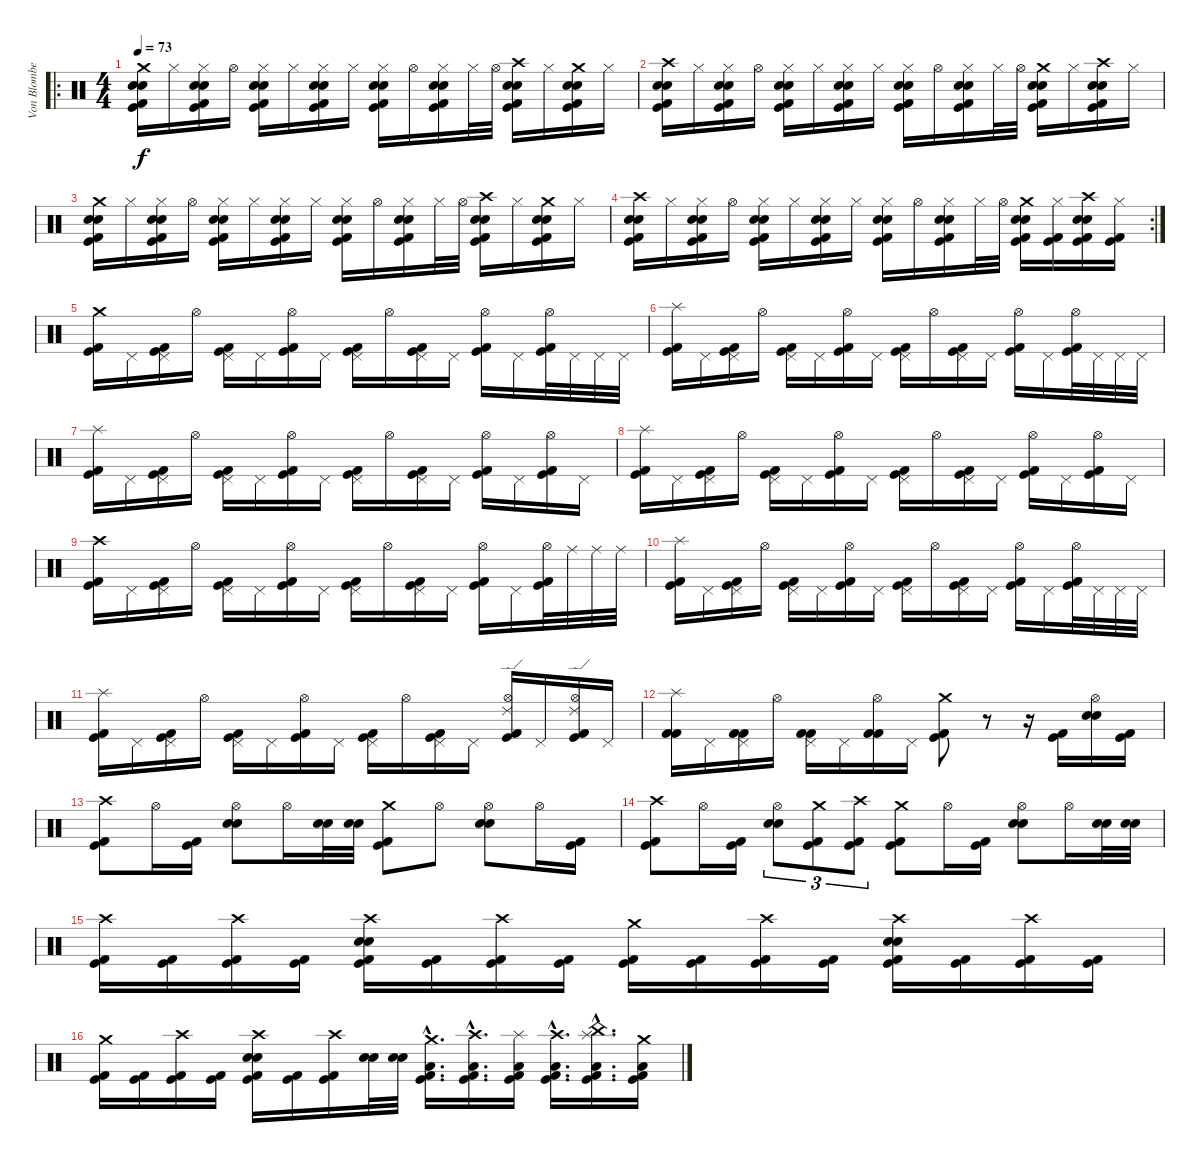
\track ("Von Blomberg" "Von Blombe") {instrument percussion}
\staff {score}
\articulation defaults
\ro
\ts (4 4)
\tempo 73
\clef neutral
\ks c
("Crash medium (hit)" "Snare (hit) 2" "Electric Snare (hit)" "Kick (hit)" "Kick (hit) 2").16{dy f} "Hi-Hat (closed)".16 ("Snare (hit) 2" "Hi-Hat (closed)" "Electric Snare (hit)" "Kick (hit) 2" "Kick (hit)").16 "Hi-Hat (open)".16 ("Snare (hit) 2" "Hi-Hat (closed)" "Electric Snare (hit)" "Kick (hit) 2" "Kick (hit)").16 "Hi-Hat (closed)".16 ("Snare (hit) 2" "Hi-Hat (closed)" "Electric Snare (hit)" "Kick (hit) 2" "Kick (hit)").16 "Hi-Hat (closed)".16 ("Snare (hit) 2" "Hi-Hat (closed)" "Electric Snare (hit)" "Kick (hit) 2" "Kick (hit)").16 "Hi-Hat (open)".16 ("Snare (hit) 2" "Hi-Hat (closed)" "Electric Snare (hit)" "Kick (hit) 2" "Kick (hit)").16 "Hi-Hat (closed)".32 "Hi-Hat (open)".32 ("Crash high (hit)" "Kick (hit)" "Electric Snare (hit)" "Snare (hit) 2" "Kick (hit) 2").16 "Hi-Hat (closed)".16 ("Crash medium (hit)" "Kick (hit)" "Electric Snare (hit)" "Snare (hit) 2" "Kick (hit) 2").16 "Hi-Hat (closed)".16 |
("Crash high (hit)" "Snare (hit) 2" "Electric Snare (hit)" "Kick (hit)" "Kick (hit) 2").16 "Hi-Hat (closed)".16 ("Snare (hit) 2" "Hi-Hat (closed)" "Electric Snare (hit)" "Kick (hit) 2" "Kick (hit)").16 "Hi-Hat (open)".16 ("Snare (hit) 2" "Hi-Hat (closed)" "Electric Snare (hit)" "Kick (hit) 2" "Kick (hit)").16 "Hi-Hat (closed)".16 ("Snare (hit) 2" "Hi-Hat (closed)" "Electric Snare (hit)" "Kick (hit) 2" "Kick (hit)").16 "Hi-Hat (closed)".16 ("Snare (hit) 2" "Hi-Hat (closed)" "Electric Snare (hit)" "Kick (hit) 2" "Kick (hit)").16 "Hi-Hat (open)".16 ("Snare (hit) 2" "Hi-Hat (closed)" "Electric Snare (hit)" "Kick (hit) 2" "Kick (hit)").16 "Hi-Hat (closed)".32 "Hi-Hat (open)".32 ("Crash medium (hit)" "Kick (hit)" "Electric Snare (hit)" "Snare (hit) 2" "Kick (hit) 2").16 "Hi-Hat (closed)".16 ("Crash high (hit)" "Kick (hit)" "Electric Snare (hit)" "Snare (hit) 2" "Kick (hit) 2").16 "Hi-Hat (closed)".16 |
("Crash medium (hit)" "Snare (hit) 2" "Electric Snare (hit)" "Kick (hit)" "Kick (hit) 2").16 "Hi-Hat (closed)".16 ("Snare (hit) 2" "Hi-Hat (closed)" "Electric Snare (hit)" "Kick (hit) 2" "Kick (hit)").16 "Hi-Hat (open)".16 ("Snare (hit) 2" "Hi-Hat (closed)" "Electric Snare (hit)" "Kick (hit) 2" "Kick (hit)").16 "Hi-Hat (closed)".16 ("Snare (hit) 2" "Hi-Hat (closed)" "Electric Snare (hit)" "Kick (hit) 2" "Kick (hit)").16 "Hi-Hat (closed)".16 ("Snare (hit) 2" "Hi-Hat (closed)" "Electric Snare (hit)" "Kick (hit) 2" "Kick (hit)").16 "Hi-Hat (open)".16 ("Snare (hit) 2" "Hi-Hat (closed)" "Electric Snare (hit)" "Kick (hit) 2" "Kick (hit)").16 "Hi-Hat (closed)".32 "Hi-Hat (open)".32 ("Crash high (hit)" "Kick (hit)" "Electric Snare (hit)" "Snare (hit) 2" "Kick (hit) 2").16 "Hi-Hat (closed)".16 ("Crash medium (hit)" "Kick (hit)" "Electric Snare (hit)" "Snare (hit) 2" "Kick (hit) 2").16 "Hi-Hat (closed)".16 |
\rc 2
("Crash high (hit)" "Snare (hit) 2" "Electric Snare (hit)" "Kick (hit)" "Kick (hit) 2").16 "Hi-Hat (closed)".16 ("Snare (hit) 2" "Hi-Hat (closed)" "Electric Snare (hit)" "Kick (hit) 2" "Kick (hit)").16 "Hi-Hat (open)".16 ("Snare (hit) 2" "Hi-Hat (closed)" "Electric Snare (hit)" "Kick (hit) 2" "Kick (hit)").16 "Hi-Hat (closed)".16 ("Snare (hit) 2" "Hi-Hat (closed)" "Electric Snare (hit)" "Kick (hit) 2" "Kick (hit)").16 "Hi-Hat (closed)".16 ("Snare (hit) 2" "Hi-Hat (closed)" "Electric Snare (hit)" "Kick (hit) 2" "Kick (hit)").16 "Hi-Hat (open)".16 ("Snare (hit) 2" "Hi-Hat (closed)" "Electric Snare (hit)" "Kick (hit) 2" "Kick (hit)").16 "Hi-Hat (closed)".32 "Hi-Hat (open)".32 ("Crash medium (hit)" "Kick (hit)" "Electric Snare (hit)" "Snare (hit) 2" "Kick (hit) 2").16 ("Hi-Hat (closed)" "Kick (hit)" "Kick (hit) 2").16 ("Crash high (hit)" "Kick (hit)" "Electric Snare (hit)" "Snare (hit) 2" "Kick (hit) 2").16 ("Hi-Hat (closed)" "Kick (hit)" "Kick (hit) 2").16 |
("Crash medium (hit)" "Kick (hit)" "Kick (hit) 2").16 "Pedal Hi-Hat (hit)".16 ("Pedal Hi-Hat (hit)" "Kick (hit)" "Kick (hit) 2").16 "Hi-Hat (open)".16 ("Pedal Hi-Hat (hit)" "Kick (hit)" "Kick (hit) 2").16 "Pedal Hi-Hat (hit)".16 ("Hi-Hat (open)" "Kick (hit)" "Kick (hit) 2").16 "Pedal Hi-Hat (hit)".16 ("Pedal Hi-Hat (hit)" "Kick (hit)" "Kick (hit) 2").16 "Hi-Hat (open)".16 ("Pedal Hi-Hat (hit)" "Kick (hit)" "Kick (hit) 2").16 "Pedal Hi-Hat (hit)".16 ("Hi-Hat (open)" "Kick (hit)" "Kick (hit) 2").16 "Pedal Hi-Hat (hit)".16 ("Hi-Hat (open)" "Kick (hit)" "Kick (hit) 2").32 "Pedal Hi-Hat (hit)".32 "Pedal Hi-Hat (hit)".32 "Pedal Hi-Hat (hit)".32 |
("Splash (hit)" "Kick (hit)" "Kick (hit) 2").16 "Pedal Hi-Hat (hit)".16 ("Pedal Hi-Hat (hit)" "Kick (hit)" "Kick (hit) 2").16 "Hi-Hat (open)".16 ("Pedal Hi-Hat (hit)" "Kick (hit)" "Kick (hit) 2").16 "Pedal Hi-Hat (hit)".16 ("Hi-Hat (open)" "Kick (hit)" "Kick (hit) 2").16 "Pedal Hi-Hat (hit)".16 ("Pedal Hi-Hat (hit)" "Kick (hit)" "Kick (hit) 2").16 "Hi-Hat (open)".16 ("Pedal Hi-Hat (hit)" "Kick (hit)" "Kick (hit) 2").16 "Pedal Hi-Hat (hit)".16 ("Hi-Hat (open)" "Kick (hit)" "Kick (hit) 2").16 "Pedal Hi-Hat (hit)".16 ("Hi-Hat (open)" "Kick (hit)" "Kick (hit) 2").32 "Pedal Hi-Hat (hit)".32 "Pedal Hi-Hat (hit)".32 "Pedal Hi-Hat (hit)".32 |
("Splash (hit)" "Kick (hit)" "Kick (hit) 2").16 "Pedal Hi-Hat (hit)".16 ("Pedal Hi-Hat (hit)" "Kick (hit)" "Kick (hit) 2").16 "Hi-Hat (open)".16 ("Pedal Hi-Hat (hit)" "Kick (hit)" "Kick (hit) 2").16 "Pedal Hi-Hat (hit)".16 ("Hi-Hat (open)" "Kick (hit)" "Kick (hit) 2").16 "Pedal Hi-Hat (hit)".16 ("Pedal Hi-Hat (hit)" "Kick (hit)" "Kick (hit) 2").16 "Hi-Hat (open)".16 ("Pedal Hi-Hat (hit)" "Kick (hit)" "Kick (hit) 2").16 "Pedal Hi-Hat (hit)".16 ("Hi-Hat (open)" "Kick (hit)" "Kick (hit) 2").16 "Pedal Hi-Hat (hit)".16 ("Hi-Hat (open)" "Kick (hit)" "Kick (hit) 2").16 "Pedal Hi-Hat (hit)".16 |
("Splash (hit)" "Kick (hit)" "Kick (hit) 2").16 "Pedal Hi-Hat (hit)".16 ("Pedal Hi-Hat (hit)" "Kick (hit)" "Kick (hit) 2").16 "Hi-Hat (open)".16 ("Pedal Hi-Hat (hit)" "Kick (hit)" "Kick (hit) 2").16 "Pedal Hi-Hat (hit)".16 ("Hi-Hat (open)" "Kick (hit)" "Kick (hit) 2").16 "Pedal Hi-Hat (hit)".16 ("Pedal Hi-Hat (hit)" "Kick (hit)" "Kick (hit) 2").16 "Hi-Hat (open)".16 ("Pedal Hi-Hat (hit)" "Kick (hit)" "Kick (hit) 2").16 "Pedal Hi-Hat (hit)".16 ("Hi-Hat (open)" "Kick (hit)" "Kick (hit) 2").16 "Pedal Hi-Hat (hit)".16 ("Hi-Hat (open)" "Kick (hit)" "Kick (hit) 2").16 "Pedal Hi-Hat (hit)".16 |
("Crash high (hit)" "Kick (hit)" "Kick (hit) 2").16 "Pedal Hi-Hat (hit)".16 ("Pedal Hi-Hat (hit)" "Kick (hit)" "Kick (hit) 2").16 "Hi-Hat (open)".16 ("Pedal Hi-Hat (hit)" "Kick (hit)" "Kick (hit) 2").16 "Pedal Hi-Hat (hit)".16 ("Hi-Hat (open)" "Kick (hit)" "Kick (hit) 2").16 "Pedal Hi-Hat (hit)".16 ("Pedal Hi-Hat (hit)" "Kick (hit)" "Kick (hit) 2").16 "Hi-Hat (open)".16 ("Pedal Hi-Hat (hit)" "Kick (hit)" "Kick (hit) 2").16 "Pedal Hi-Hat (hit)".16 ("Hi-Hat (open)" "Kick (hit)" "Kick (hit) 2").16 "Pedal Hi-Hat (hit)".16 ("Hi-Hat (open)" "Kick (hit)" "Kick (hit) 2").32 "Ride (middle)".32 "Ride (middle)".32 "Ride (middle)".32 |
("Splash (hit)" "Kick (hit)" "Kick (hit) 2").16 "Pedal Hi-Hat (hit)".16 ("Pedal Hi-Hat (hit)" "Kick (hit)" "Kick (hit) 2").16 "Hi-Hat (open)".16 ("Pedal Hi-Hat (hit)" "Kick (hit)" "Kick (hit) 2").16 "Pedal Hi-Hat (hit)".16 ("Hi-Hat (open)" "Kick (hit)" "Kick (hit) 2").16 "Pedal Hi-Hat (hit)".16 ("Pedal Hi-Hat (hit)" "Kick (hit)" "Kick (hit) 2").16 "Hi-Hat (open)".16 ("Pedal Hi-Hat (hit)" "Kick (hit)" "Kick (hit) 2").16 "Pedal Hi-Hat (hit)".16 ("Hi-Hat (open)" "Kick (hit)" "Kick (hit) 2").16 "Pedal Hi-Hat (hit)".16 ("Hi-Hat (open)" "Kick (hit)" "Kick (hit) 2").32 "Pedal Hi-Hat (hit)".32 "Pedal Hi-Hat (hit)".32 "Pedal Hi-Hat (hit)".32 |
("Splash (hit)" "Kick (hit)" "Kick (hit) 2").16 "Pedal Hi-Hat (hit)".16 ("Pedal Hi-Hat (hit)" "Kick (hit)" "Kick (hit) 2").16 "Hi-Hat (open)".16 ("Pedal Hi-Hat (hit)" "Kick (hit)" "Kick (hit) 2").16 "Pedal Hi-Hat (hit)".16 ("Hi-Hat (open)" "Kick (hit)" "Kick (hit) 2").16 "Pedal Hi-Hat (hit)".16 ("Pedal Hi-Hat (hit)" "Kick (hit)" "Kick (hit) 2").16 "Hi-Hat (open)".16 ("Pedal Hi-Hat (hit)" "Kick (hit)" "Kick (hit) 2").16 "Pedal Hi-Hat (hit)".16 ("Ride (edge) 2" "Hi-Hat (open)" "Kick (hit)" "Kick (hit) 2").16 "Pedal Hi-Hat (hit)".16 ("Ride (edge) 2" "Hi-Hat (open)" "Kick (hit)" "Kick (hit) 2").16 "Pedal Hi-Hat (hit)".16 |
("Splash (hit)" "Kick (hit) 2" "Kick (hit) 2").16 "Pedal Hi-Hat (hit)".16 ("Pedal Hi-Hat (hit)" "Kick (hit) 2" "Kick (hit) 2").16 "Hi-Hat (open)".16 ("Pedal Hi-Hat (hit)" "Kick (hit) 2" "Kick (hit) 2").16 "Pedal Hi-Hat (hit)".16 ("Hi-Hat (open)" "Kick (hit) 2" "Kick (hit) 2").16 "Pedal Hi-Hat (hit)".16 ("Crash medium (hit)" "Kick (hit)" "Kick (hit) 2").8 r.8 r.16 ("Kick (hit)" "Kick (hit) 2").16 ("Hi-Hat (open)" "Snare (hit) 2" "Electric Snare (hit)").16 ("Kick (hit)" "Kick (hit) 2").16 |
("Crash high (hit)" "Kick (hit)" "Kick (hit) 2").8 "Hi-Hat (open)".16 ("Kick (hit)" "Kick (hit) 2").16 ("Hi-Hat (open)" "Snare (hit) 2" "Electric Snare (hit)").8 "Hi-Hat (open)".16 ("Electric Snare (hit)" "Snare (hit) 2").32 ("Electric Snare (hit)" "Snare (hit) 2").32 ("Crash medium (hit)" "Kick (hit)" "Kick (hit) 2").8 "Hi-Hat (open)".8 ("Hi-Hat (open)" "Snare (hit) 2" "Electric Snare (hit)").8 "Hi-Hat (open)".16 ("Kick (hit)" "Kick (hit) 2").16 |
("Crash high (hit)" "Kick (hit)" "Kick (hit) 2").8 "Hi-Hat (open)".16 ("Kick (hit)" "Kick (hit) 2").16 ("Hi-Hat (open)" "Electric Snare (hit)" "Snare (hit) 2").8{tu (3 2)} ("Crash medium (hit)" "Kick (hit)" "Kick (hit) 2").8{tu (3 2)} ("Crash high (hit)" "Kick (hit)" "Kick (hit) 2").8{tu (3 2)} ("Crash medium (hit)" "Kick (hit)" "Kick (hit) 2").8 "Hi-Hat (open)".16 ("Kick (hit)" "Kick (hit) 2").16 ("Hi-Hat (open)" "Electric Snare (hit)" "Snare (hit) 2").8 "Hi-Hat (open)".16 ("Electric Snare (hit)" "Snare (hit) 2").32 ("Electric Snare (hit)" "Snare (hit) 2").32 |
("Crash high (hit)" "Kick (hit)" "Kick (hit) 2").16 ("Kick (hit)" "Kick (hit) 2").16 ("Crash high (hit)" "Kick (hit)" "Kick (hit) 2").16 ("Kick (hit)" "Kick (hit) 2").16 ("Crash high (hit)" "Electric Snare (hit)" "Snare (hit) 2" "Kick (hit)" "Kick (hit) 2").16 ("Kick (hit)" "Kick (hit) 2").16 ("Crash high (hit)" "Kick (hit)" "Kick (hit) 2").16 ("Kick (hit)" "Kick (hit) 2").16 ("Crash medium (hit)" "Kick (hit)" "Kick (hit) 2").16 ("Kick (hit)" "Kick (hit) 2").16 ("Crash high (hit)" "Kick (hit)" "Kick (hit) 2").16 ("Kick (hit)" "Kick (hit) 2").16 ("Crash high (hit)" "Electric Snare (hit)" "Snare (hit) 2" "Kick (hit)" "Kick (hit) 2").16 ("Kick (hit)" "Kick (hit) 2").16 ("Crash high (hit)" "Kick (hit)" "Kick (hit) 2").16 ("Kick (hit)" "Kick (hit) 2").16 |
("Crash medium (hit)" "Kick (hit)" "Kick (hit) 2").16 ("Kick (hit)" "Kick (hit) 2").16 ("Crash high (hit)" "Kick (hit)" "Kick (hit) 2").16 ("Kick (hit)" "Kick (hit) 2").16 ("Crash high (hit)" "Electric Snare (hit)" "Snare (hit) 2" "Kick (hit)" "Kick (hit) 2").16 ("Kick (hit)" "Kick (hit) 2").16 ("Crash high (hit)" "Kick (hit)" "Kick (hit) 2").16 ("Electric Snare (hit)" "Snare (hit) 2").32 ("Electric Snare (hit)" "Snare (hit) 2").32 ("Crash medium (hit)"{hac} "Low Floor Tom (hit)"{hac} "Kick (hit)"{hac} "Kick (hit) 2"{hac}).16{d} ("Crash high (hit)"{hac} "Low Floor Tom (hit)"{hac} "Kick (hit)"{hac} "Kick (hit) 2"{hac}).16{d} ("Splash (hit)" "Low Floor Tom (hit)" "Kick (hit)" "Kick (hit) 2").16 ("Crash high (hit)"{hac} "Low Floor Tom (hit)"{hac} "Kick (hit)"{hac} "Kick (hit) 2"{hac}).16{d} ("China (hit)"{hac} "Splash (hit)"{hac} "Low Floor Tom (hit)"{hac} "Kick (hit)"{hac} "Kick (hit) 2"{hac}).16{d} ("Crash medium (hit)" "Low Floor Tom (hit)" "Kick (hit)" "Kick (hit) 2").16
